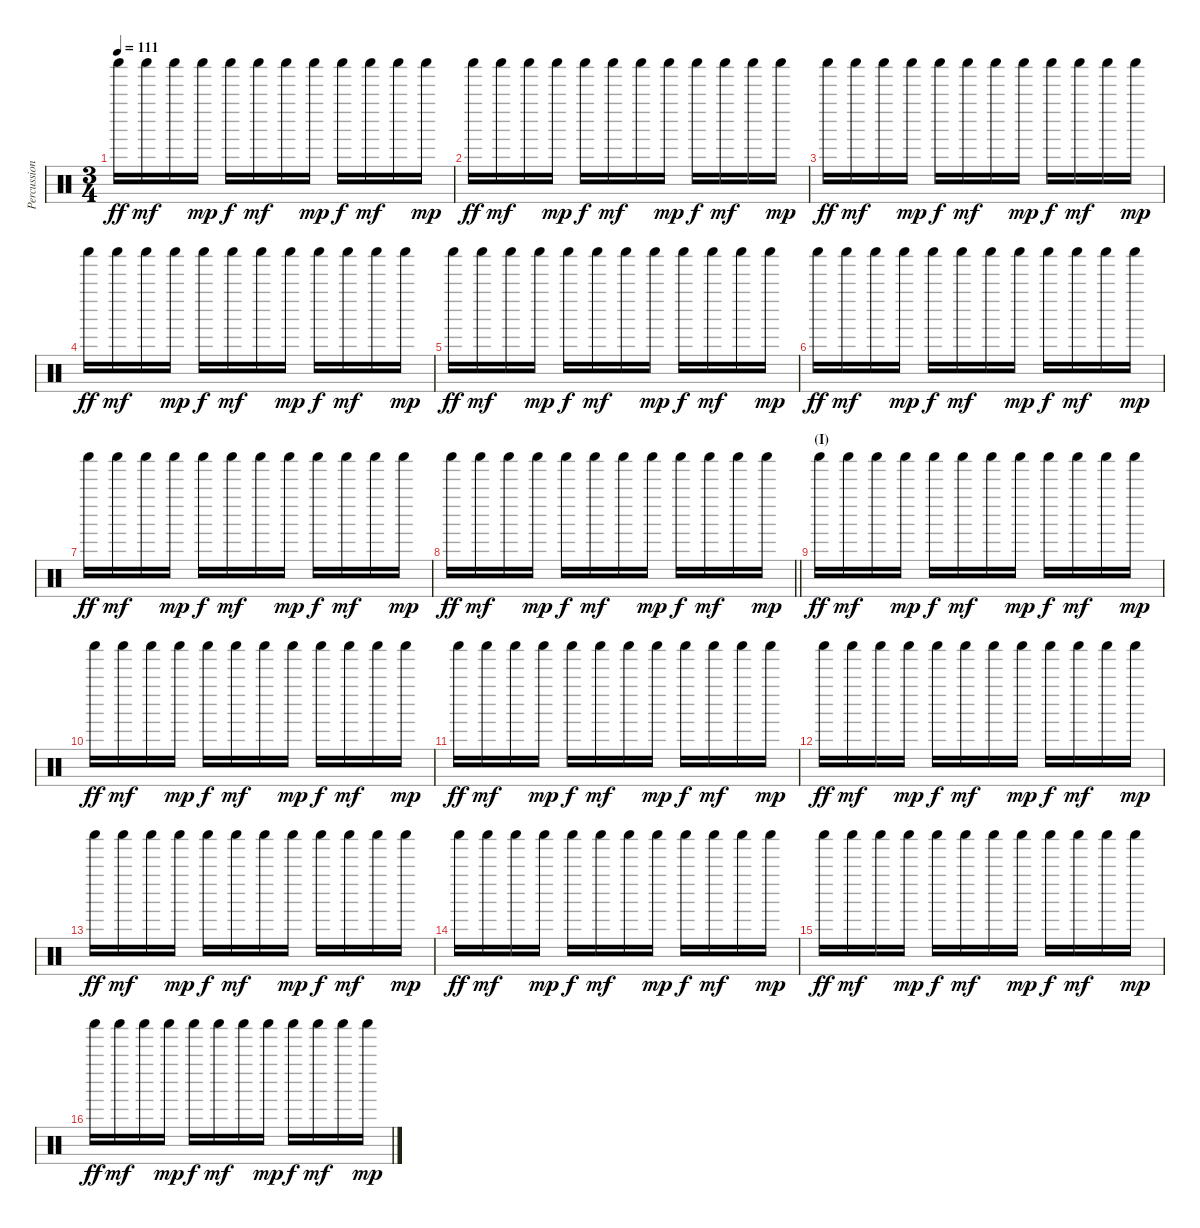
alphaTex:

\track ("Percussion 2" "Percussion") {instrument percussion}
\staff {score}
\articulation defaults
\ts (3 4)
\tempo 111
\clef neutral
\ks c "Shaker (hit)".16{dy ff volume 6 balance 0} "Shaker (hit)".16{dy mf} "Shaker (hit)".16 "Shaker (hit)".16{dy mp} "Shaker (hit)".16{dy f} "Shaker (hit)".16{dy mf} "Shaker (hit)".16 "Shaker (hit)".16{dy mp} "Shaker (hit)".16{dy f} "Shaker (hit)".16{dy mf} "Shaker (hit)".16 "Shaker (hit)".16{dy mp}
|
"Shaker (hit)".16{dy ff} "Shaker (hit)".16{dy mf} "Shaker (hit)".16 "Shaker (hit)".16{dy mp} "Shaker (hit)".16{dy f} "Shaker (hit)".16{dy mf} "Shaker (hit)".16 "Shaker (hit)".16{dy mp} "Shaker (hit)".16{dy f} "Shaker (hit)".16{dy mf} "Shaker (hit)".16 "Shaker (hit)".16{dy mp} |
"Shaker (hit)".16{dy ff} "Shaker (hit)".16{dy mf} "Shaker (hit)".16 "Shaker (hit)".16{dy mp} "Shaker (hit)".16{dy f} "Shaker (hit)".16{dy mf} "Shaker (hit)".16 "Shaker (hit)".16{dy mp} "Shaker (hit)".16{dy f} "Shaker (hit)".16{dy mf} "Shaker (hit)".16 "Shaker (hit)".16{dy mp} |
"Shaker (hit)".16{dy ff} "Shaker (hit)".16{dy mf} "Shaker (hit)".16 "Shaker (hit)".16{dy mp} "Shaker (hit)".16{dy f} "Shaker (hit)".16{dy mf} "Shaker (hit)".16 "Shaker (hit)".16{dy mp} "Shaker (hit)".16{dy f} "Shaker (hit)".16{dy mf} "Shaker (hit)".16 "Shaker (hit)".16{dy mp} |
"Shaker (hit)".16{dy ff} "Shaker (hit)".16{dy mf} "Shaker (hit)".16 "Shaker (hit)".16{dy mp} "Shaker (hit)".16{dy f} "Shaker (hit)".16{dy mf} "Shaker (hit)".16 "Shaker (hit)".16{dy mp} "Shaker (hit)".16{dy f} "Shaker (hit)".16{dy mf} "Shaker (hit)".16 "Shaker (hit)".16{dy mp} |
"Shaker (hit)".16{dy ff} "Shaker (hit)".16{dy mf} "Shaker (hit)".16 "Shaker (hit)".16{dy mp} "Shaker (hit)".16{dy f} "Shaker (hit)".16{dy mf} "Shaker (hit)".16 "Shaker (hit)".16{dy mp} "Shaker (hit)".16{dy f} "Shaker (hit)".16{dy mf} "Shaker (hit)".16 "Shaker (hit)".16{dy mp} |
"Shaker (hit)".16{dy ff} "Shaker (hit)".16{dy mf} "Shaker (hit)".16 "Shaker (hit)".16{dy mp} "Shaker (hit)".16{dy f} "Shaker (hit)".16{dy mf} "Shaker (hit)".16 "Shaker (hit)".16{dy mp} "Shaker (hit)".16{dy f} "Shaker (hit)".16{dy mf} "Shaker (hit)".16 "Shaker (hit)".16{dy mp} |
\barLineRight lightlight "Shaker (hit)".16{dy ff} "Shaker (hit)".16{dy mf} "Shaker (hit)".16 "Shaker (hit)".16{dy mp} "Shaker (hit)".16{dy f} "Shaker (hit)".16{dy mf} "Shaker (hit)".16 "Shaker (hit)".16{dy mp} "Shaker (hit)".16{dy f} "Shaker (hit)".16{dy mf} "Shaker (hit)".16 "Shaker (hit)".16{dy mp}
|
\section ("" "(I)")
"Shaker (hit)".16{dy ff volume 7 balance 8} "Shaker (hit)".16{dy mf} "Shaker (hit)".16 "Shaker (hit)".16{dy mp} "Shaker (hit)".16{dy f} "Shaker (hit)".16{dy mf} "Shaker (hit)".16 "Shaker (hit)".16{dy mp} "Shaker (hit)".16{dy f} "Shaker (hit)".16{dy mf} "Shaker (hit)".16 "Shaker (hit)".16{dy mp} |
"Shaker (hit)".16{dy ff} "Shaker (hit)".16{dy mf} "Shaker (hit)".16 "Shaker (hit)".16{dy mp} "Shaker (hit)".16{dy f} "Shaker (hit)".16{dy mf} "Shaker (hit)".16 "Shaker (hit)".16{dy mp} "Shaker (hit)".16{dy f} "Shaker (hit)".16{dy mf} "Shaker (hit)".16 "Shaker (hit)".16{dy mp} |
"Shaker (hit)".16{dy ff} "Shaker (hit)".16{dy mf} "Shaker (hit)".16 "Shaker (hit)".16{dy mp} "Shaker (hit)".16{dy f} "Shaker (hit)".16{dy mf} "Shaker (hit)".16 "Shaker (hit)".16{dy mp} "Shaker (hit)".16{dy f} "Shaker (hit)".16{dy mf} "Shaker (hit)".16 "Shaker (hit)".16{dy mp} |
"Shaker (hit)".16{dy ff} "Shaker (hit)".16{dy mf} "Shaker (hit)".16 "Shaker (hit)".16{dy mp} "Shaker (hit)".16{dy f} "Shaker (hit)".16{dy mf} "Shaker (hit)".16 "Shaker (hit)".16{dy mp} "Shaker (hit)".16{dy f} "Shaker (hit)".16{dy mf} "Shaker (hit)".16 "Shaker (hit)".16{dy mp} |
"Shaker (hit)".16{dy ff} "Shaker (hit)".16{dy mf} "Shaker (hit)".16 "Shaker (hit)".16{dy mp} "Shaker (hit)".16{dy f} "Shaker (hit)".16{dy mf} "Shaker (hit)".16 "Shaker (hit)".16{dy mp} "Shaker (hit)".16{dy f} "Shaker (hit)".16{dy mf} "Shaker (hit)".16 "Shaker (hit)".16{dy mp} |
"Shaker (hit)".16{dy ff} "Shaker (hit)".16{dy mf} "Shaker (hit)".16 "Shaker (hit)".16{dy mp} "Shaker (hit)".16{dy f} "Shaker (hit)".16{dy mf} "Shaker (hit)".16 "Shaker (hit)".16{dy mp} "Shaker (hit)".16{dy f} "Shaker (hit)".16{dy mf} "Shaker (hit)".16 "Shaker (hit)".16{dy mp} |
"Shaker (hit)".16{dy ff} "Shaker (hit)".16{dy mf} "Shaker (hit)".16 "Shaker (hit)".16{dy mp} "Shaker (hit)".16{dy f} "Shaker (hit)".16{dy mf} "Shaker (hit)".16 "Shaker (hit)".16{dy mp} "Shaker (hit)".16{dy f} "Shaker (hit)".16{dy mf} "Shaker (hit)".16 "Shaker (hit)".16{dy mp} |
"Shaker (hit)".16{dy ff} "Shaker (hit)".16{dy mf} "Shaker (hit)".16 "Shaker (hit)".16{dy mp} "Shaker (hit)".16{dy f} "Shaker (hit)".16{dy mf} "Shaker (hit)".16 "Shaker (hit)".16{dy mp} "Shaker (hit)".16{dy f} "Shaker (hit)".16{dy mf} "Shaker (hit)".16 "Shaker (hit)".16{dy mp}
